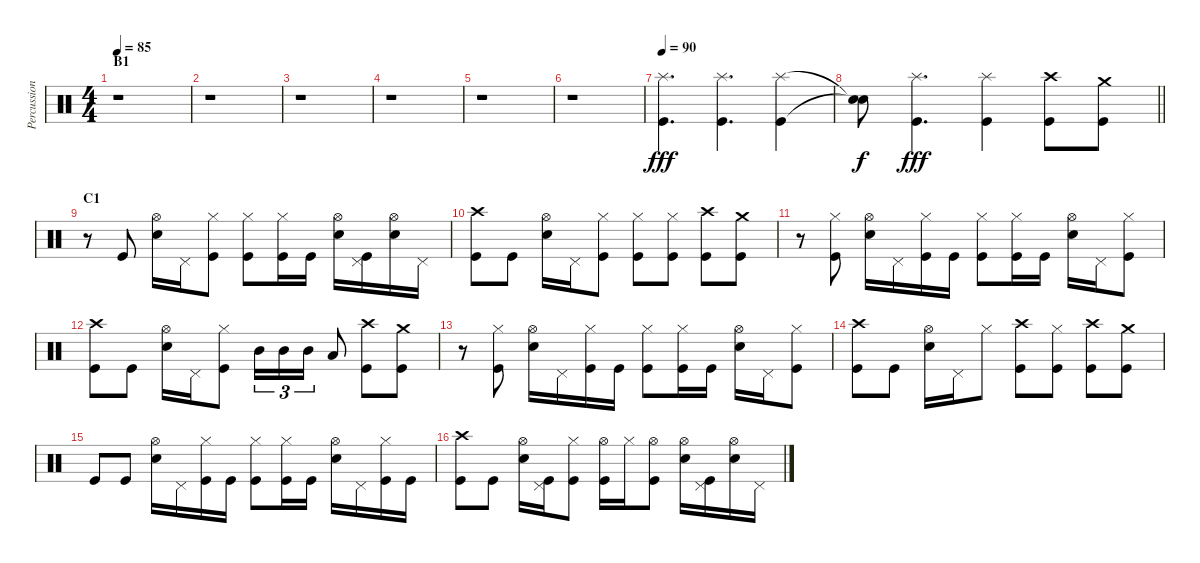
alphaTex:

\track ("Percussion" "Percussion") {instrument percussion}
\staff {score}
\articulation defaults
\ts (4 4)
\section ("" "B1")
\tempo 85
\clef neutral
\ks c
r.1{dy fff} |
r.1 |
r.1 |
r.1 |
r.1 |
r.1 |
\tempo 90
("Splash (hit)" "Kick (hit)").4{d} ("Splash (hit)" "Kick (hit)").4{d} ("Splash (hit)" "Kick (hit)").4 |
\barLineRight lightlight
("Snare (hit)"{t} "Snare (hit)"{t}).8{dy f} ("Splash (hit)" "Kick (hit)").4{d dy fff} ("Splash (hit)" "Kick (hit)").4 ("Crash high (hit)" "Kick (hit)").8 ("Crash medium (hit)" "Kick (hit)").8 |
\section ("" "C1")
r.8 "Kick (hit)".8 ("Hi-Hat (open)" "Electric Snare (hit)").16 "Pedal Hi-Hat (hit)".16 ("Hi-Hat (closed)" "Kick (hit)").8 ("Hi-Hat (closed)" "Kick (hit)").8 ("Hi-Hat (closed)" "Kick (hit)").16 "Kick (hit)".16 ("Hi-Hat (open)" "Electric Snare (hit)").16 ("Pedal Hi-Hat (hit)" "Kick (hit)").16 ("Hi-Hat (open)" "Electric Snare (hit)").16 "Pedal Hi-Hat (hit)".16 |
("Crash high (hit)" "Kick (hit)").8 "Kick (hit)".8 ("Hi-Hat (open)" "Electric Snare (hit)").16 "Pedal Hi-Hat (hit)".16 ("Hi-Hat (closed)" "Kick (hit)").8 ("Hi-Hat (closed)" "Kick (hit)").8 ("Hi-Hat (closed)" "Kick (hit)").8 ("Crash high (hit)" "Kick (hit)").8 ("Crash medium (hit)" "Kick (hit)").8 |
r.8 ("Hi-Hat (closed)" "Kick (hit)").8 ("Hi-Hat (open)" "Electric Snare (hit)").16 "Pedal Hi-Hat (hit)".16 ("Hi-Hat (closed)" "Kick (hit)").16 "Kick (hit)".16 ("Hi-Hat (closed)" "Kick (hit)").8 ("Hi-Hat (closed)" "Kick (hit)").16 "Kick (hit)".16 ("Hi-Hat (open)" "Electric Snare (hit)").16 "Pedal Hi-Hat (hit)".16 ("Hi-Hat (closed)" "Kick (hit)").8 |
("Crash high (hit)" "Kick (hit)").8 "Kick (hit)".8 ("Hi-Hat (open)" "Electric Snare (hit)").16 "Pedal Hi-Hat (hit)".16 ("Hi-Hat (closed)" "Kick (hit)").8 "Mid Tom (hit)".16{tu (3 2)} "Mid Tom (hit)".16{tu (3 2)} "Mid Tom (hit)".16{tu (3 2)} "Low Tom (hit)".8 ("Crash high (hit)" "Kick (hit)").8 ("Crash medium (hit)" "Kick (hit)").8 |
r.8 ("Hi-Hat (closed)" "Kick (hit)").8 ("Hi-Hat (open)" "Electric Snare (hit)").16 "Pedal Hi-Hat (hit)".16 ("Hi-Hat (closed)" "Kick (hit)").16 "Kick (hit)".16 ("Hi-Hat (closed)" "Kick (hit)").8 ("Hi-Hat (closed)" "Kick (hit)").16 "Kick (hit)".16 ("Hi-Hat (open)" "Electric Snare (hit)").16 "Pedal Hi-Hat (hit)".16 ("Hi-Hat (closed)" "Kick (hit)").8 |
("Crash high (hit)" "Kick (hit)").8 "Kick (hit)".8 ("Hi-Hat (open)" "Electric Snare (hit)").16 "Pedal Hi-Hat (hit)".16 "Hi-Hat (closed)".8 ("Crash high (hit)" "Kick (hit)").8 ("Hi-Hat (closed)" "Kick (hit)").8 ("Crash high (hit)" "Kick (hit)").8 ("Crash medium (hit)" "Kick (hit)").8 |
"Kick (hit)".8 "Kick (hit)".8 ("Hi-Hat (open)" "Electric Snare (hit)").16 "Pedal Hi-Hat (hit)".16 ("Hi-Hat (closed)" "Kick (hit)").16 "Kick (hit)".16 ("Hi-Hat (closed)" "Kick (hit)").8 ("Hi-Hat (closed)" "Kick (hit)").16 "Kick (hit)".16 ("Hi-Hat (open)" "Electric Snare (hit)").16 "Pedal Hi-Hat (hit)".16 ("Hi-Hat (closed)" "Kick (hit)").16 "Kick (hit)".16 |
("Crash high (hit)" "Kick (hit)").8 "Kick (hit)".8 ("Hi-Hat (open)" "Electric Snare (hit)").16 ("Pedal Hi-Hat (hit)" "Kick (hit)").16 ("Hi-Hat (closed)" "Kick (hit)").8 ("Hi-Hat (open)" "Kick (hit)").16 "Hi-Hat (closed)".16 ("Hi-Hat (open)" "Kick (hit)").8 ("Hi-Hat (open)" "Electric Snare (hit)").16 ("Pedal Hi-Hat (hit)" "Kick (hit)").16 ("Hi-Hat (open)" "Electric Snare (hit)").16 "Pedal Hi-Hat (hit)".16
